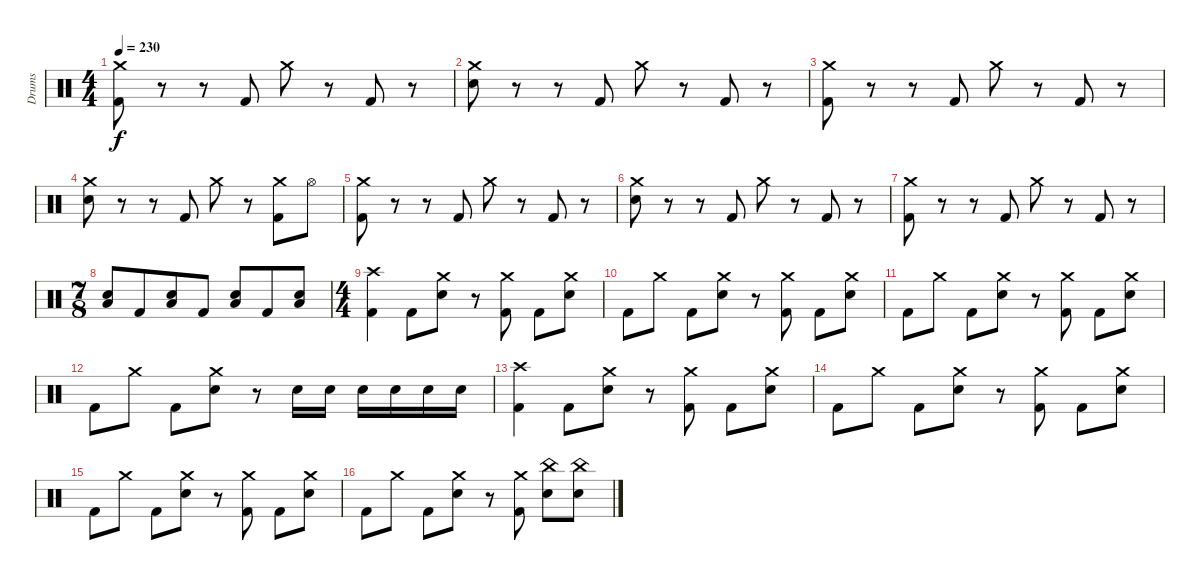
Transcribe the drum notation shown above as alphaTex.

\track ("Drums" "Drums") {instrument percussion}
\staff {score}
\articulation defaults
\ts (4 4)
\tempo 230
\clef neutral
\ks c
("Kick (hit) 2" "Crash medium (hit)").8{dy f} r.8 r.8 "Kick (hit) 2".8 "Crash medium (hit)".8 r.8 "Kick (hit) 2".8 r.8 |
("Electric Snare (hit)" "Crash medium (hit)").8 r.8 r.8 "Kick (hit) 2".8 "Crash medium (hit)".8 r.8 "Kick (hit) 2".8 r.8 |
("Kick (hit) 2" "Crash medium (hit)").8 r.8 r.8 "Kick (hit) 2".8 "Crash medium (hit)".8 r.8 "Kick (hit) 2".8 r.8 |
("Electric Snare (hit)" "Crash medium (hit)").8 r.8 r.8 "Kick (hit) 2".8 "Crash medium (hit)".8 r.8 ("Kick (hit) 2" "Crash medium (hit)").8 "Hi-Hat (open)".8 |
("Kick (hit) 2" "Crash medium (hit)").8 r.8 r.8 "Kick (hit) 2".8 "Crash medium (hit)".8 r.8 "Kick (hit) 2".8 r.8 |
("Electric Snare (hit)" "Crash medium (hit)").8 r.8 r.8 "Kick (hit) 2".8 "Crash medium (hit)".8 r.8 "Kick (hit) 2".8 r.8 |
("Kick (hit) 2" "Crash medium (hit)").8 r.8 r.8 "Kick (hit) 2".8 "Crash medium (hit)".8 r.8 "Kick (hit) 2".8 r.8 |
\ts (7 8)
("Electric Snare (hit)" "Low Tom (hit)").8 "Kick (hit) 2".8 ("Electric Snare (hit)" "Low Tom (hit)").8 "Kick (hit) 2".8 ("Electric Snare (hit)" "Low Tom (hit)").8 "Kick (hit) 2".8 ("Electric Snare (hit)" "Low Tom (hit)").8 |
\ts (4 4)
("Kick (hit) 2" "Crash high (hit)").4 "Kick (hit) 2".8 ("Electric Snare (hit)" "Crash medium (hit)").8 r.8 ("Kick (hit) 2" "Crash medium (hit)").8 "Kick (hit) 2".8 ("Electric Snare (hit)" "Crash medium (hit)").8 |
"Kick (hit) 2".8 "Crash medium (hit)".8 "Kick (hit) 2".8 ("Electric Snare (hit)" "Crash medium (hit)").8 r.8 ("Kick (hit) 2" "Crash medium (hit)").8 "Kick (hit) 2".8 ("Electric Snare (hit)" "Crash medium (hit)").8 |
"Kick (hit) 2".8 "Crash medium (hit)".8 "Kick (hit) 2".8 ("Electric Snare (hit)" "Crash medium (hit)").8 r.8 ("Kick (hit) 2" "Crash medium (hit)").8 "Kick (hit) 2".8 ("Electric Snare (hit)" "Crash medium (hit)").8 |
"Kick (hit) 2".8 "Crash medium (hit)".8 "Kick (hit) 2".8 ("Electric Snare (hit)" "Crash medium (hit)").8 r.8 "Electric Snare (hit)".16 "Electric Snare (hit)".16 "Electric Snare (hit)".16 "Electric Snare (hit)".16 "Electric Snare (hit)".16 "Electric Snare (hit)".16 |
("Kick (hit) 2" "Crash high (hit)").4 "Kick (hit) 2".8 ("Electric Snare (hit)" "Crash medium (hit)").8 r.8 ("Kick (hit) 2" "Crash medium (hit)").8 "Kick (hit) 2".8 ("Electric Snare (hit)" "Crash medium (hit)").8 |
"Kick (hit) 2".8 "Crash medium (hit)".8 "Kick (hit) 2".8 ("Electric Snare (hit)" "Crash medium (hit)").8 r.8 ("Kick (hit) 2" "Crash medium (hit)").8 "Kick (hit) 2".8 ("Electric Snare (hit)" "Crash medium (hit)").8 |
"Kick (hit) 2".8 "Crash medium (hit)".8 "Kick (hit) 2".8 ("Electric Snare (hit)" "Crash medium (hit)").8 r.8 ("Kick (hit) 2" "Crash medium (hit)").8 "Kick (hit) 2".8 ("Electric Snare (hit)" "Crash medium (hit)").8 |
"Kick (hit) 2".8 "Crash medium (hit)".8 "Kick (hit) 2".8 ("Electric Snare (hit)" "Crash medium (hit)").8 r.8 ("Kick (hit) 2" "Crash medium (hit)").8 ("Electric Snare (hit)" "China (hit)").8 ("Electric Snare (hit)" "China (hit)").8
